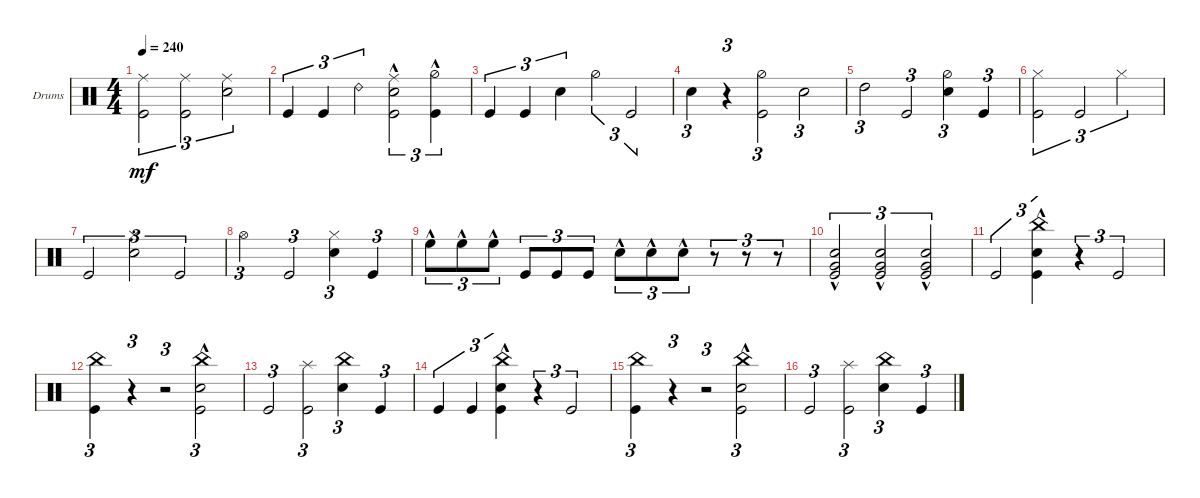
\defaultSystemsLayout 4
\bracketExtendMode groupsimilarinstruments
\firstSystemTrackNameOrientation horizontal
\otherSystemsTrackNameOrientation horizontal
\track ("Drumkit" "Drums") {instrument percussion}
\staff {score}
\articulation defaults
\ts (4 4)
\tempo 240
\clef neutral
\ks c
("Ride (middle)" "Kick (hit)").2{tu (3 2) dy mf} ("Ride (middle)" "Kick (hit)").2{tu (3 2)} ("Ride (middle)" "Snare (hit) 2").2{tu (3 2)} |
"Kick (hit)".4{tu (3 2)} "Kick (hit)".4{tu (3 2)} "Ride (bell) 2".4{tu (3 2)} ("Kick (hit)" "Snare (hit) 2"{hac} "Ride (middle)").2{tu (3 2)} ("Kick (hit)" "Hi-Hat (half)"{hac}).4{tu (3 2)} |
"Kick (hit)".4{tu (3 2)} "Kick (hit)".4{tu (3 2)} "Snare (hit) 2".4{tu (3 2)} "Hi-Hat (half)".4{tu (3 2)} "Kick (hit)".2{tu (3 2)} |
"Snare (hit) 2".4{tu (3 2)} r.4{tu (3 2)} ("Kick (hit)" "Hi-Hat (half)").2{tu (3 2)} "Snare (hit) 2".2{tu (3 2)} |
"High Tom (hit)".2{tu (3 2)} "Kick (hit)".2{tu (3 2)} ("Snare (hit) 2" "Hi-Hat (half)").4{tu (3 2)} "Kick (hit)".4{tu (3 2)} |
("Kick (hit)" "Hi-Hat (closed)").2{tu (3 2)} "Kick (hit)".2{tu (3 2)} "Hi-Hat (closed)".2{tu (3 2)} |
"Kick (hit)".2{tu (3 2)} ("Hi-Hat (closed)" "Snare (hit) 2").2{tu (3 2)} "Kick (hit)".2{tu (3 2)} |
"Hi-Hat (open)".2{tu (3 2)} "Kick (hit)".2{tu (3 2)} ("Snare (hit) 2" "Hi-Hat (closed)").4{tu (3 2)} "Kick (hit)".4{tu (3 2)} |
"High Floor Tom (hit)"{hac}.8{tu (3 2)} "High Floor Tom (hit)"{hac}.8{tu (3 2)} "High Floor Tom (hit)"{hac}.8{tu (3 2)} "Kick (hit)".8{tu (3 2)} "Kick (hit)".8{tu (3 2)} "Kick (hit)".8{tu (3 2)} "Snare (hit) 2"{hac}.8{tu (3 2)} "Snare (hit) 2"{hac}.8{tu (3 2)} "Snare (hit) 2"{hac}.8{tu (3 2)} r.8{tu (3 2)} r.8{tu (3 2)} r.8{tu (3 2)} |
("Kick (hit)" "Very Low Tom (hit)" "Snare (hit) 2"{hac}).2{tu (3 2)} ("Kick (hit)" "Snare (hit) 2"{hac} "Very Low Tom (hit)").2{tu (3 2)} ("Kick (hit)" "Snare (hit) 2"{hac} "Very Low Tom (hit)").2{tu (3 2)} |
"Kick (hit)".2{tu (3 2)} ("Kick (hit)" "Snare (hit) 2"{hac} "China (hit)").4{tu (3 2)} r.4{tu (3 2)} "Kick (hit)".2{tu (3 2)} |
("Kick (hit)" "China (hit)").4{tu (3 2)} r.4{tu (3 2)} r.2{tu (3 2)} ("China (hit)" "Kick (hit)" "Snare (hit) 2"{hac}).2{tu (3 2)} |
"Kick (hit)".2{tu (3 2)} ("Kick (hit)" "Splash (hit)").2{tu (3 2)} ("China (hit)" "Snare (hit) 2").4{tu (3 2)} "Kick (hit)".4{tu (3 2)} |
"Kick (hit)".4{tu (3 2)} "Kick (hit)".4{tu (3 2)} ("Kick (hit)" "Snare (hit) 2"{hac} "China (hit)").4{tu (3 2)} r.4{tu (3 2)} "Kick (hit)".2{tu (3 2)} |
("Kick (hit)" "China (hit)").4{tu (3 2)} r.4{tu (3 2)} r.2{tu (3 2)} ("China (hit)" "Kick (hit)" "Snare (hit) 2"{hac}).2{tu (3 2)} |
"Kick (hit)".2{tu (3 2)} ("Kick (hit)" "Splash (hit)").2{tu (3 2)} ("China (hit)" "Snare (hit) 2").4{tu (3 2)} "Kick (hit)".4{tu (3 2)}
